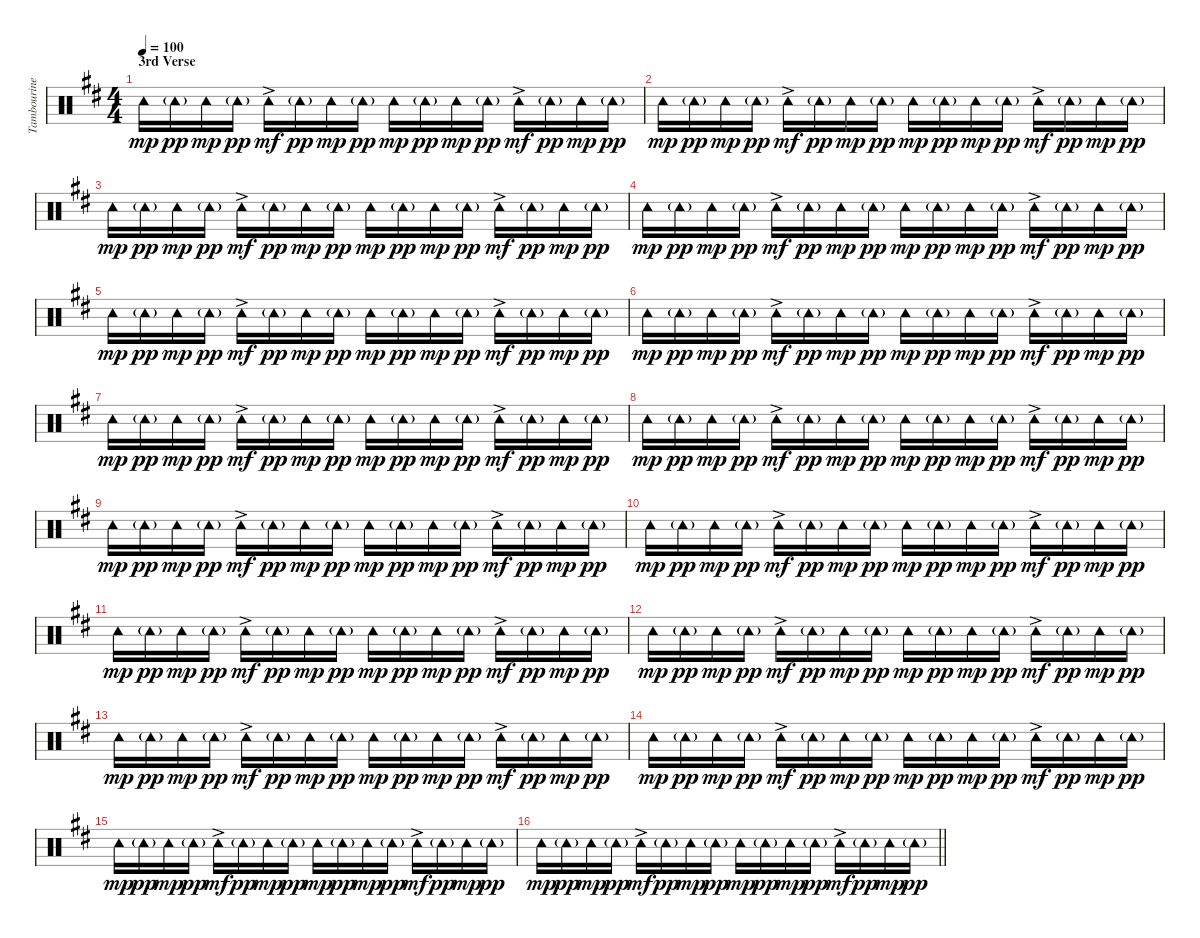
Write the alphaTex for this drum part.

\track ("Tambourine" "Tambourine") {instrument percussion}
\staff {score}
\articulation defaults
\ts (4 4)
\section ("" "3rd Verse")
\tempo 100
\clef neutral
\ks d "Tambourine (hit)".16{dy mp} "Tambourine (hit)"{g}.16{dy pp} "Tambourine (hit)".16{dy mp} "Tambourine (hit)"{g}.16{dy pp} "Tambourine (hit)"{ac}.16{dy mf} "Tambourine (hit)"{g}.16{dy pp} "Tambourine (hit)".16{dy mp} "Tambourine (hit)"{g}.16{dy pp} "Tambourine (hit)".16{dy mp} "Tambourine (hit)"{g}.16{dy pp} "Tambourine (hit)".16{dy mp} "Tambourine (hit)"{g}.16{dy pp} "Tambourine (hit)"{ac}.16{dy mf} "Tambourine (hit)"{g}.16{dy pp} "Tambourine (hit)".16{dy mp} "Tambourine (hit)"{g}.16{dy pp}
|
"Tambourine (hit)".16{dy mp} "Tambourine (hit)"{g}.16{dy pp} "Tambourine (hit)".16{dy mp} "Tambourine (hit)"{g}.16{dy pp} "Tambourine (hit)"{ac}.16{dy mf} "Tambourine (hit)"{g}.16{dy pp} "Tambourine (hit)".16{dy mp} "Tambourine (hit)"{g}.16{dy pp} "Tambourine (hit)".16{dy mp} "Tambourine (hit)"{g}.16{dy pp} "Tambourine (hit)".16{dy mp} "Tambourine (hit)"{g}.16{dy pp} "Tambourine (hit)"{ac}.16{dy mf} "Tambourine (hit)"{g}.16{dy pp} "Tambourine (hit)".16{dy mp} "Tambourine (hit)"{g}.16{dy pp} |
"Tambourine (hit)".16{dy mp} "Tambourine (hit)"{g}.16{dy pp} "Tambourine (hit)".16{dy mp} "Tambourine (hit)"{g}.16{dy pp} "Tambourine (hit)"{ac}.16{dy mf} "Tambourine (hit)"{g}.16{dy pp} "Tambourine (hit)".16{dy mp} "Tambourine (hit)"{g}.16{dy pp} "Tambourine (hit)".16{dy mp} "Tambourine (hit)"{g}.16{dy pp} "Tambourine (hit)".16{dy mp} "Tambourine (hit)"{g}.16{dy pp} "Tambourine (hit)"{ac}.16{dy mf} "Tambourine (hit)"{g}.16{dy pp} "Tambourine (hit)".16{dy mp} "Tambourine (hit)"{g}.16{dy pp} |
"Tambourine (hit)".16{dy mp} "Tambourine (hit)"{g}.16{dy pp} "Tambourine (hit)".16{dy mp} "Tambourine (hit)"{g}.16{dy pp} "Tambourine (hit)"{ac}.16{dy mf} "Tambourine (hit)"{g}.16{dy pp} "Tambourine (hit)".16{dy mp} "Tambourine (hit)"{g}.16{dy pp} "Tambourine (hit)".16{dy mp} "Tambourine (hit)"{g}.16{dy pp} "Tambourine (hit)".16{dy mp} "Tambourine (hit)"{g}.16{dy pp} "Tambourine (hit)"{ac}.16{dy mf} "Tambourine (hit)"{g}.16{dy pp} "Tambourine (hit)".16{dy mp} "Tambourine (hit)"{g}.16{dy pp} |
"Tambourine (hit)".16{dy mp} "Tambourine (hit)"{g}.16{dy pp} "Tambourine (hit)".16{dy mp} "Tambourine (hit)"{g}.16{dy pp} "Tambourine (hit)"{ac}.16{dy mf} "Tambourine (hit)"{g}.16{dy pp} "Tambourine (hit)".16{dy mp} "Tambourine (hit)"{g}.16{dy pp} "Tambourine (hit)".16{dy mp} "Tambourine (hit)"{g}.16{dy pp} "Tambourine (hit)".16{dy mp} "Tambourine (hit)"{g}.16{dy pp} "Tambourine (hit)"{ac}.16{dy mf} "Tambourine (hit)"{g}.16{dy pp} "Tambourine (hit)".16{dy mp} "Tambourine (hit)"{g}.16{dy pp} |
"Tambourine (hit)".16{dy mp} "Tambourine (hit)"{g}.16{dy pp} "Tambourine (hit)".16{dy mp} "Tambourine (hit)"{g}.16{dy pp} "Tambourine (hit)"{ac}.16{dy mf} "Tambourine (hit)"{g}.16{dy pp} "Tambourine (hit)".16{dy mp} "Tambourine (hit)"{g}.16{dy pp} "Tambourine (hit)".16{dy mp} "Tambourine (hit)"{g}.16{dy pp} "Tambourine (hit)".16{dy mp} "Tambourine (hit)"{g}.16{dy pp} "Tambourine (hit)"{ac}.16{dy mf} "Tambourine (hit)"{g}.16{dy pp} "Tambourine (hit)".16{dy mp} "Tambourine (hit)"{g}.16{dy pp} |
"Tambourine (hit)".16{dy mp} "Tambourine (hit)"{g}.16{dy pp} "Tambourine (hit)".16{dy mp} "Tambourine (hit)"{g}.16{dy pp} "Tambourine (hit)"{ac}.16{dy mf} "Tambourine (hit)"{g}.16{dy pp} "Tambourine (hit)".16{dy mp} "Tambourine (hit)"{g}.16{dy pp} "Tambourine (hit)".16{dy mp} "Tambourine (hit)"{g}.16{dy pp} "Tambourine (hit)".16{dy mp} "Tambourine (hit)"{g}.16{dy pp} "Tambourine (hit)"{ac}.16{dy mf} "Tambourine (hit)"{g}.16{dy pp} "Tambourine (hit)".16{dy mp} "Tambourine (hit)"{g}.16{dy pp} |
"Tambourine (hit)".16{dy mp} "Tambourine (hit)"{g}.16{dy pp} "Tambourine (hit)".16{dy mp} "Tambourine (hit)"{g}.16{dy pp} "Tambourine (hit)"{ac}.16{dy mf} "Tambourine (hit)"{g}.16{dy pp} "Tambourine (hit)".16{dy mp} "Tambourine (hit)"{g}.16{dy pp} "Tambourine (hit)".16{dy mp} "Tambourine (hit)"{g}.16{dy pp} "Tambourine (hit)".16{dy mp} "Tambourine (hit)"{g}.16{dy pp} "Tambourine (hit)"{ac}.16{dy mf} "Tambourine (hit)"{g}.16{dy pp} "Tambourine (hit)".16{dy mp} "Tambourine (hit)"{g}.16{dy pp} |
"Tambourine (hit)".16{dy mp} "Tambourine (hit)"{g}.16{dy pp} "Tambourine (hit)".16{dy mp} "Tambourine (hit)"{g}.16{dy pp} "Tambourine (hit)"{ac}.16{dy mf} "Tambourine (hit)"{g}.16{dy pp} "Tambourine (hit)".16{dy mp} "Tambourine (hit)"{g}.16{dy pp} "Tambourine (hit)".16{dy mp} "Tambourine (hit)"{g}.16{dy pp} "Tambourine (hit)".16{dy mp} "Tambourine (hit)"{g}.16{dy pp} "Tambourine (hit)"{ac}.16{dy mf} "Tambourine (hit)"{g}.16{dy pp} "Tambourine (hit)".16{dy mp} "Tambourine (hit)"{g}.16{dy pp} |
"Tambourine (hit)".16{dy mp} "Tambourine (hit)"{g}.16{dy pp} "Tambourine (hit)".16{dy mp} "Tambourine (hit)"{g}.16{dy pp} "Tambourine (hit)"{ac}.16{dy mf} "Tambourine (hit)"{g}.16{dy pp} "Tambourine (hit)".16{dy mp} "Tambourine (hit)"{g}.16{dy pp} "Tambourine (hit)".16{dy mp} "Tambourine (hit)"{g}.16{dy pp} "Tambourine (hit)".16{dy mp} "Tambourine (hit)"{g}.16{dy pp} "Tambourine (hit)"{ac}.16{dy mf} "Tambourine (hit)"{g}.16{dy pp} "Tambourine (hit)".16{dy mp} "Tambourine (hit)"{g}.16{dy pp} |
"Tambourine (hit)".16{dy mp} "Tambourine (hit)"{g}.16{dy pp} "Tambourine (hit)".16{dy mp} "Tambourine (hit)"{g}.16{dy pp} "Tambourine (hit)"{ac}.16{dy mf} "Tambourine (hit)"{g}.16{dy pp} "Tambourine (hit)".16{dy mp} "Tambourine (hit)"{g}.16{dy pp} "Tambourine (hit)".16{dy mp} "Tambourine (hit)"{g}.16{dy pp} "Tambourine (hit)".16{dy mp} "Tambourine (hit)"{g}.16{dy pp} "Tambourine (hit)"{ac}.16{dy mf} "Tambourine (hit)"{g}.16{dy pp} "Tambourine (hit)".16{dy mp} "Tambourine (hit)"{g}.16{dy pp} |
"Tambourine (hit)".16{dy mp} "Tambourine (hit)"{g}.16{dy pp} "Tambourine (hit)".16{dy mp} "Tambourine (hit)"{g}.16{dy pp} "Tambourine (hit)"{ac}.16{dy mf} "Tambourine (hit)"{g}.16{dy pp} "Tambourine (hit)".16{dy mp} "Tambourine (hit)"{g}.16{dy pp} "Tambourine (hit)".16{dy mp} "Tambourine (hit)"{g}.16{dy pp} "Tambourine (hit)".16{dy mp} "Tambourine (hit)"{g}.16{dy pp} "Tambourine (hit)"{ac}.16{dy mf} "Tambourine (hit)"{g}.16{dy pp} "Tambourine (hit)".16{dy mp} "Tambourine (hit)"{g}.16{dy pp} |
"Tambourine (hit)".16{dy mp} "Tambourine (hit)"{g}.16{dy pp} "Tambourine (hit)".16{dy mp} "Tambourine (hit)"{g}.16{dy pp} "Tambourine (hit)"{ac}.16{dy mf} "Tambourine (hit)"{g}.16{dy pp} "Tambourine (hit)".16{dy mp} "Tambourine (hit)"{g}.16{dy pp} "Tambourine (hit)".16{dy mp} "Tambourine (hit)"{g}.16{dy pp} "Tambourine (hit)".16{dy mp} "Tambourine (hit)"{g}.16{dy pp} "Tambourine (hit)"{ac}.16{dy mf} "Tambourine (hit)"{g}.16{dy pp} "Tambourine (hit)".16{dy mp} "Tambourine (hit)"{g}.16{dy pp} |
"Tambourine (hit)".16{dy mp} "Tambourine (hit)"{g}.16{dy pp} "Tambourine (hit)".16{dy mp} "Tambourine (hit)"{g}.16{dy pp} "Tambourine (hit)"{ac}.16{dy mf} "Tambourine (hit)"{g}.16{dy pp} "Tambourine (hit)".16{dy mp} "Tambourine (hit)"{g}.16{dy pp} "Tambourine (hit)".16{dy mp} "Tambourine (hit)"{g}.16{dy pp} "Tambourine (hit)".16{dy mp} "Tambourine (hit)"{g}.16{dy pp} "Tambourine (hit)"{ac}.16{dy mf} "Tambourine (hit)"{g}.16{dy pp} "Tambourine (hit)".16{dy mp} "Tambourine (hit)"{g}.16{dy pp} |
"Tambourine (hit)".16{dy mp} "Tambourine (hit)"{g}.16{dy pp} "Tambourine (hit)".16{dy mp} "Tambourine (hit)"{g}.16{dy pp} "Tambourine (hit)"{ac}.16{dy mf} "Tambourine (hit)"{g}.16{dy pp} "Tambourine (hit)".16{dy mp} "Tambourine (hit)"{g}.16{dy pp} "Tambourine (hit)".16{dy mp} "Tambourine (hit)"{g}.16{dy pp} "Tambourine (hit)".16{dy mp} "Tambourine (hit)"{g}.16{dy pp} "Tambourine (hit)"{ac}.16{dy mf} "Tambourine (hit)"{g}.16{dy pp} "Tambourine (hit)".16{dy mp} "Tambourine (hit)"{g}.16{dy pp} |
\barLineRight lightlight "Tambourine (hit)".16{dy mp} "Tambourine (hit)"{g}.16{dy pp} "Tambourine (hit)".16{dy mp} "Tambourine (hit)"{g}.16{dy pp} "Tambourine (hit)"{ac}.16{dy mf} "Tambourine (hit)"{g}.16{dy pp} "Tambourine (hit)".16{dy mp} "Tambourine (hit)"{g}.16{dy pp} "Tambourine (hit)".16{dy mp} "Tambourine (hit)"{g}.16{dy pp} "Tambourine (hit)".16{dy mp} "Tambourine (hit)"{g}.16{dy pp} "Tambourine (hit)"{ac}.16{dy mf} "Tambourine (hit)"{g}.16{dy pp} "Tambourine (hit)".16{dy mp} "Tambourine (hit)"{g}.16{dy pp}
